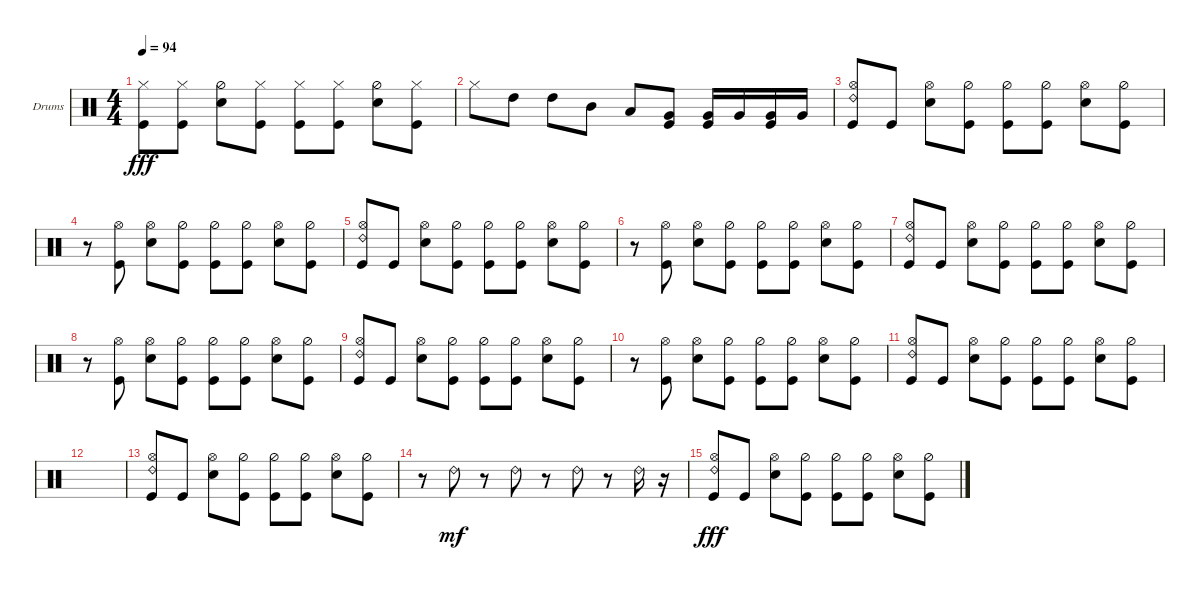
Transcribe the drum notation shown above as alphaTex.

\defaultSystemsLayout 4
\bracketExtendMode groupsimilarinstruments
\firstSystemTrackNameOrientation horizontal
\otherSystemsTrackNameOrientation horizontal
\track ("Drumkit" "Drums") {instrument percussion}
\staff {score}
\articulation defaults
\ts (4 4)
\tempo 94
\clef neutral
\ks c
("Kick (hit)" "Hi-Hat (closed)").8{dy fff} ("Kick (hit)" "Hi-Hat (closed)").8 ("Snare (hit) 2" "Hi-Hat (half)").8 ("Kick (hit)" "Hi-Hat (closed)").8 ("Kick (hit)" "Hi-Hat (closed)").8 ("Kick (hit)" "Hi-Hat (closed)").8 ("Snare (hit) 2" "Hi-Hat (half)").8 ("Kick (hit)" "Hi-Hat (closed)").8 |
"Hi-Hat (closed)".8 "High Tom (hit)".8 "High Tom (hit)".8 "Mid Tom (hit)".8 "Low Tom (hit)".8 ("Very Low Tom (hit)" "Kick (hit)").8 ("Very Low Tom (hit)" "Kick (hit)").16 "Very Low Tom (hit)".16 ("Very Low Tom (hit)" "Kick (hit)").16 "Very Low Tom (hit)".16 |
("Hi-Hat (open)" "Ride (bell) 2" "Kick (hit)").8 "Kick (hit)".8 ("Hi-Hat (open)" "Snare (hit) 2").8 ("Hi-Hat (half)" "Kick (hit)").8 ("Hi-Hat (half)" "Kick (hit)").8 ("Hi-Hat (half)" "Kick (hit)").8 ("Hi-Hat (open)" "Snare (hit) 2").8 ("Hi-Hat (half)" "Kick (hit)").8 |
r.8 ("Kick (hit)" "Hi-Hat (open)").8 ("Hi-Hat (open)" "Snare (hit) 2").8 ("Hi-Hat (half)" "Kick (hit)").8 ("Hi-Hat (half)" "Kick (hit)").8 ("Hi-Hat (half)" "Kick (hit)").8 ("Hi-Hat (open)" "Snare (hit) 2").8 ("Hi-Hat (half)" "Kick (hit)").8 |
("Hi-Hat (open)" "Ride (bell) 2" "Kick (hit)").8 "Kick (hit)".8 ("Hi-Hat (open)" "Snare (hit) 2").8 ("Hi-Hat (half)" "Kick (hit)").8 ("Hi-Hat (half)" "Kick (hit)").8 ("Hi-Hat (half)" "Kick (hit)").8 ("Hi-Hat (open)" "Snare (hit) 2").8 ("Hi-Hat (half)" "Kick (hit)").8 |
r.8 ("Kick (hit)" "Hi-Hat (open)").8 ("Hi-Hat (open)" "Snare (hit) 2").8 ("Hi-Hat (half)" "Kick (hit)").8 ("Hi-Hat (half)" "Kick (hit)").8 ("Hi-Hat (half)" "Kick (hit)").8 ("Hi-Hat (open)" "Snare (hit) 2").8 ("Hi-Hat (half)" "Kick (hit)").8 |
("Hi-Hat (open)" "Ride (bell) 2" "Kick (hit)").8 "Kick (hit)".8 ("Hi-Hat (open)" "Snare (hit) 2").8 ("Hi-Hat (half)" "Kick (hit)").8 ("Hi-Hat (half)" "Kick (hit)").8 ("Hi-Hat (half)" "Kick (hit)").8 ("Hi-Hat (open)" "Snare (hit) 2").8 ("Hi-Hat (half)" "Kick (hit)").8 |
r.8 ("Kick (hit)" "Hi-Hat (open)").8 ("Hi-Hat (open)" "Snare (hit) 2").8 ("Hi-Hat (half)" "Kick (hit)").8 ("Hi-Hat (half)" "Kick (hit)").8 ("Hi-Hat (half)" "Kick (hit)").8 ("Hi-Hat (open)" "Snare (hit) 2").8 ("Hi-Hat (half)" "Kick (hit)").8 |
("Hi-Hat (open)" "Ride (bell) 2" "Kick (hit)").8 "Kick (hit)".8 ("Hi-Hat (open)" "Snare (hit) 2").8 ("Hi-Hat (half)" "Kick (hit)").8 ("Hi-Hat (half)" "Kick (hit)").8 ("Hi-Hat (half)" "Kick (hit)").8 ("Hi-Hat (open)" "Snare (hit) 2").8 ("Hi-Hat (half)" "Kick (hit)").8 |
r.8 ("Kick (hit)" "Hi-Hat (open)").8 ("Hi-Hat (open)" "Snare (hit) 2").8 ("Hi-Hat (half)" "Kick (hit)").8 ("Hi-Hat (half)" "Kick (hit)").8 ("Hi-Hat (half)" "Kick (hit)").8 ("Hi-Hat (open)" "Snare (hit) 2").8 ("Hi-Hat (half)" "Kick (hit)").8 |
("Hi-Hat (open)" "Ride (bell) 2" "Kick (hit)").8 "Kick (hit)".8 ("Hi-Hat (open)" "Snare (hit) 2").8 ("Hi-Hat (half)" "Kick (hit)").8 ("Hi-Hat (half)" "Kick (hit)").8 ("Hi-Hat (half)" "Kick (hit)").8 ("Hi-Hat (open)" "Snare (hit) 2").8 ("Hi-Hat (half)" "Kick (hit)").8 |
|
("Hi-Hat (open)" "Ride (bell) 2" "Kick (hit)").8 "Kick (hit)".8 ("Hi-Hat (open)" "Snare (hit) 2").8 ("Hi-Hat (half)" "Kick (hit)").8 ("Hi-Hat (half)" "Kick (hit)").8 ("Hi-Hat (half)" "Kick (hit)").8 ("Hi-Hat (open)" "Snare (hit) 2").8 ("Hi-Hat (half)" "Kick (hit)").8 |
r.8 "Ride (bell) 2".8{dy mf} r.8 "Ride (bell) 2".8 r.8 "Ride (bell) 2".8 r.8 "Ride (bell) 2".16 r.16 |
("Hi-Hat (open)" "Ride (bell) 2" "Kick (hit)").8{dy fff} "Kick (hit)".8 ("Hi-Hat (open)" "Snare (hit) 2").8 ("Hi-Hat (half)" "Kick (hit)").8 ("Hi-Hat (half)" "Kick (hit)").8 ("Hi-Hat (half)" "Kick (hit)").8 ("Hi-Hat (open)" "Snare (hit) 2").8 ("Hi-Hat (half)" "Kick (hit)").8
